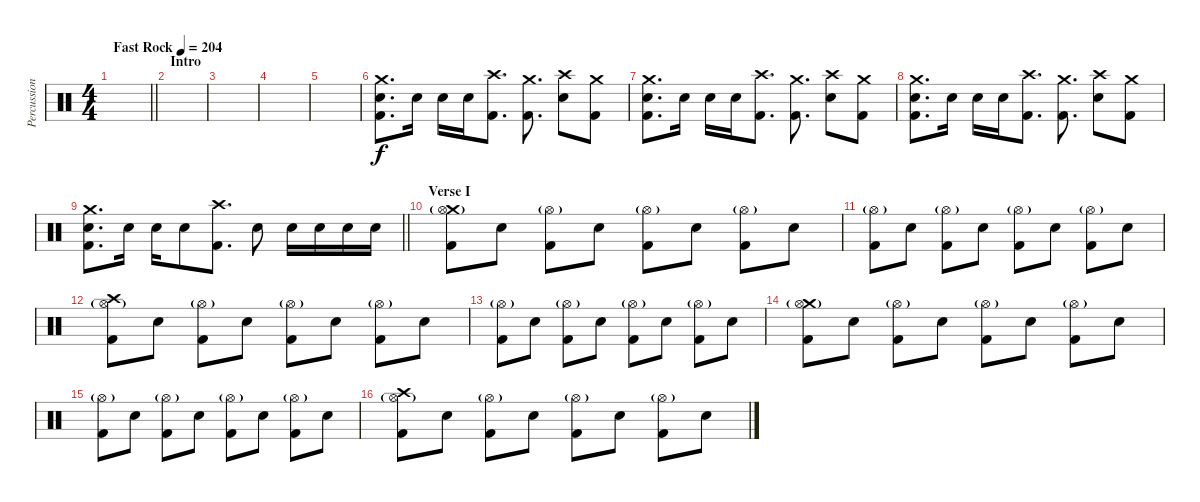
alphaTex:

\track ("Percussion" "Percussion") {instrument percussion}
\staff {score}
\articulation defaults
\ts (4 4)
\tempo (204 "Fast Rock")
\clef neutral
\barLineRight lightlight
\ks c
|
\section ("" "Intro")
|
|
|
|
("Crash medium (hit)" "Electric Snare (hit)" "Kick (hit) 2").8{d} "Electric Snare (hit)".16 "Electric Snare (hit)".16 "Electric Snare (hit)".16 ("Crash high (hit)" "Kick (hit) 2").8{d} ("Crash medium (hit)" "Kick (hit) 2").8{d} ("Crash high (hit)" "Electric Snare (hit)").8 ("Crash medium (hit)" "Kick (hit) 2").8 |
("Crash medium (hit)" "Electric Snare (hit)" "Kick (hit) 2").8{d} "Electric Snare (hit)".16 "Electric Snare (hit)".16 "Electric Snare (hit)".16 ("Crash high (hit)" "Kick (hit) 2").8{d} ("Crash medium (hit)" "Kick (hit) 2").8{d} ("Crash high (hit)" "Electric Snare (hit)").8 ("Crash medium (hit)" "Kick (hit) 2").8 |
("Crash medium (hit)" "Electric Snare (hit)" "Kick (hit) 2").8{d} "Electric Snare (hit)".16 "Electric Snare (hit)".16 "Electric Snare (hit)".16 ("Crash high (hit)" "Kick (hit) 2").8{d} ("Crash medium (hit)" "Kick (hit) 2").8{d} ("Crash high (hit)" "Electric Snare (hit)").8 ("Crash medium (hit)" "Kick (hit) 2").8 |
\barLineRight lightlight
("Crash medium (hit)" "Electric Snare (hit)" "Kick (hit) 2").8{d} "Electric Snare (hit)".16 "Electric Snare (hit)".16 "Electric Snare (hit)".8 ("Crash high (hit)" "Kick (hit) 2").8{d} "Electric Snare (hit)".8 "Electric Snare (hit)".16 "Electric Snare (hit)".16 "Electric Snare (hit)".16 "Electric Snare (hit)".16 |
\section ("" "Verse I")
("Crash medium (hit)" "Hi-Hat (open)"{g} "Kick (hit) 2").8 "Electric Snare (hit)".8 ("Hi-Hat (open)"{g} "Kick (hit) 2").8 "Electric Snare (hit)".8 ("Hi-Hat (open)"{g} "Kick (hit) 2").8 "Electric Snare (hit)".8 ("Hi-Hat (open)"{g} "Kick (hit) 2").8 "Electric Snare (hit)".8 |
("Hi-Hat (open)"{g} "Kick (hit) 2").8 "Electric Snare (hit)".8 ("Hi-Hat (open)"{g} "Kick (hit) 2").8 "Electric Snare (hit)".8 ("Hi-Hat (open)"{g} "Kick (hit) 2").8 "Electric Snare (hit)".8 ("Hi-Hat (open)"{g} "Kick (hit) 2").8 "Electric Snare (hit)".8 |
("Crash high (hit)" "Hi-Hat (open)"{g} "Kick (hit) 2").8 "Electric Snare (hit)".8 ("Hi-Hat (open)"{g} "Kick (hit) 2").8 "Electric Snare (hit)".8 ("Hi-Hat (open)"{g} "Kick (hit) 2").8 "Electric Snare (hit)".8 ("Hi-Hat (open)"{g} "Kick (hit) 2").8 "Electric Snare (hit)".8 |
("Hi-Hat (open)"{g} "Kick (hit) 2").8 "Electric Snare (hit)".8 ("Hi-Hat (open)"{g} "Kick (hit) 2").8 "Electric Snare (hit)".8 ("Hi-Hat (open)"{g} "Kick (hit) 2").8 "Electric Snare (hit)".8 ("Hi-Hat (open)"{g} "Kick (hit) 2").8 "Electric Snare (hit)".8 |
("Crash medium (hit)" "Hi-Hat (open)"{g} "Kick (hit) 2").8 "Electric Snare (hit)".8 ("Hi-Hat (open)"{g} "Kick (hit) 2").8 "Electric Snare (hit)".8 ("Hi-Hat (open)"{g} "Kick (hit) 2").8 "Electric Snare (hit)".8 ("Hi-Hat (open)"{g} "Kick (hit) 2").8 "Electric Snare (hit)".8 |
("Hi-Hat (open)"{g} "Kick (hit) 2").8 "Electric Snare (hit)".8 ("Hi-Hat (open)"{g} "Kick (hit) 2").8 "Electric Snare (hit)".8 ("Hi-Hat (open)"{g} "Kick (hit) 2").8 "Electric Snare (hit)".8 ("Hi-Hat (open)"{g} "Kick (hit) 2").8 "Electric Snare (hit)".8 |
("Crash high (hit)" "Hi-Hat (open)"{g} "Kick (hit) 2").8 "Electric Snare (hit)".8 ("Hi-Hat (open)"{g} "Kick (hit) 2").8 "Electric Snare (hit)".8 ("Hi-Hat (open)"{g} "Kick (hit) 2").8 "Electric Snare (hit)".8 ("Hi-Hat (open)"{g} "Kick (hit) 2").8 "Electric Snare (hit)".8
